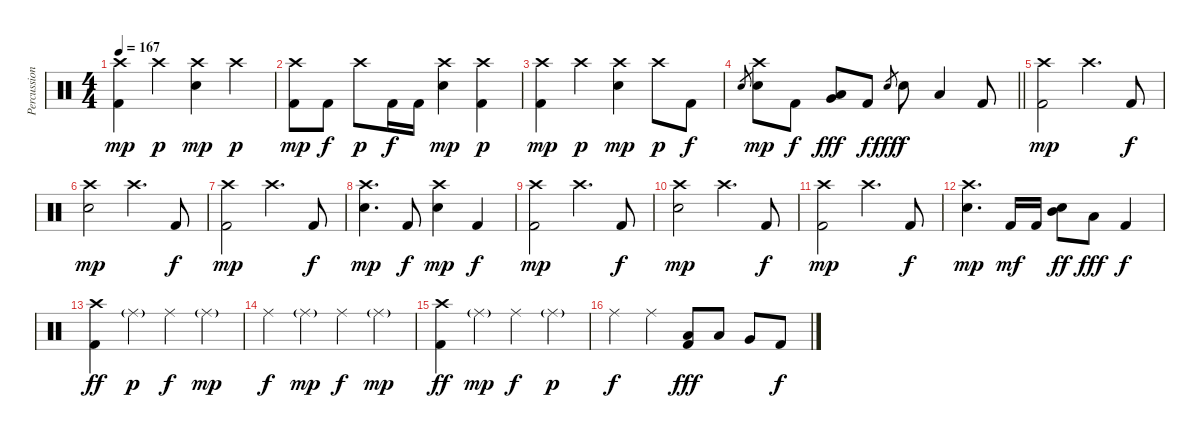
\track ("Percussion" "Percussion") {instrument percussion}
\staff {score}
\articulation defaults
\ts (4 4)
\tempo 167
\clef neutral
\ks c
("Crash high (hit)" "Kick (hit) 2").4{dy mp} "Crash high (hit)".4{dy p} ("Crash high (hit)" "Snare (hit) 2").4{dy mp} "Crash high (hit)".4{dy p} |
("Crash high (hit)" "Kick (hit) 2").8{dy mp} "Kick (hit) 2".8{dy f} "Crash high (hit)".8{dy p} "Kick (hit) 2".16{dy f} "Kick (hit) 2".16 ("Crash high (hit)" "Snare (hit) 2").4{dy mp} ("Crash high (hit)" "Kick (hit) 2").4{dy p} |
("Crash high (hit)" "Kick (hit) 2").4{dy mp} "Crash high (hit)".4{dy p} ("Crash high (hit)" "Snare (hit) 2").4{dy mp} "Crash high (hit)".8{dy p} "Kick (hit) 2".8{dy f} |
\barLineRight lightlight "Snare (hit) 2".8{gr}
("Crash high (hit)" "Snare (hit) 2").8{dy mp} "Kick (hit) 2".8{dy f} ("Low Tom (hit)" "Very Low Tom (hit)").8{dy fff} "Kick (hit) 2".8{dy f} "Snare (hit) 2".8{gr dy fff} "Snare (hit) 2".8{dy f} "Low Tom (hit)".4 "Kick (hit) 2".8 |
("Crash high (hit)" "Kick (hit) 2").2{dy mp} "Crash high (hit)".4{d} "Kick (hit) 2".8{dy f} |
("Crash high (hit)" "Snare (hit) 2").2{dy mp} "Crash high (hit)".4{d} "Kick (hit) 2".8{dy f} |
("Crash high (hit)" "Kick (hit) 2").2{dy mp} "Crash high (hit)".4{d} "Kick (hit) 2".8{dy f} |
("Crash high (hit)" "Snare (hit) 2").4{d dy mp} "Kick (hit) 2".8{dy f} ("Crash high (hit)" "Snare (hit) 2").4{dy mp} "Kick (hit) 2".4{dy f} |
("Crash high (hit)" "Kick (hit) 2").2{dy mp} "Crash high (hit)".4{d} "Kick (hit) 2".8{dy f} |
("Crash high (hit)" "Snare (hit) 2").2{dy mp} "Crash high (hit)".4{d} "Kick (hit) 2".8{dy f} |
("Crash high (hit)" "Kick (hit) 2").2{dy mp} "Crash high (hit)".4{d} "Kick (hit) 2".8{dy f} |
("Crash high (hit)" "Snare (hit) 2").4{d dy mp} "Kick (hit) 2".16{dy mf} "Kick (hit) 2".16 ("Mid Tom (hit)" "Snare (hit) 2").8{dy ff} "Low Tom (hit)".8{dy fff} "Kick (hit) 2".4{dy f} |
("Crash high (hit)" "Kick (hit) 2").4{dy ff} "Ride (middle)"{g}.4{dy p} "Ride (middle)".4{dy f} "Ride (middle)"{g}.4{dy mp} |
"Ride (middle)".4{dy f} "Ride (middle)"{g}.4{dy mp} "Ride (middle)".4{dy f} "Ride (middle)"{g}.4{dy mp} |
("Crash high (hit)" "Kick (hit) 2").4{dy ff} "Ride (middle)"{g}.4{dy mp} "Ride (middle)".4{dy f} "Ride (middle)"{g}.4{dy p} |
"Ride (middle)".4{dy f} "Ride (middle)".4 ("Low Tom (hit)" "Kick (hit) 2").8{dy fff} "Low Tom (hit)".8 "Very Low Tom (hit)".8 "Kick (hit) 2".8{dy f}
